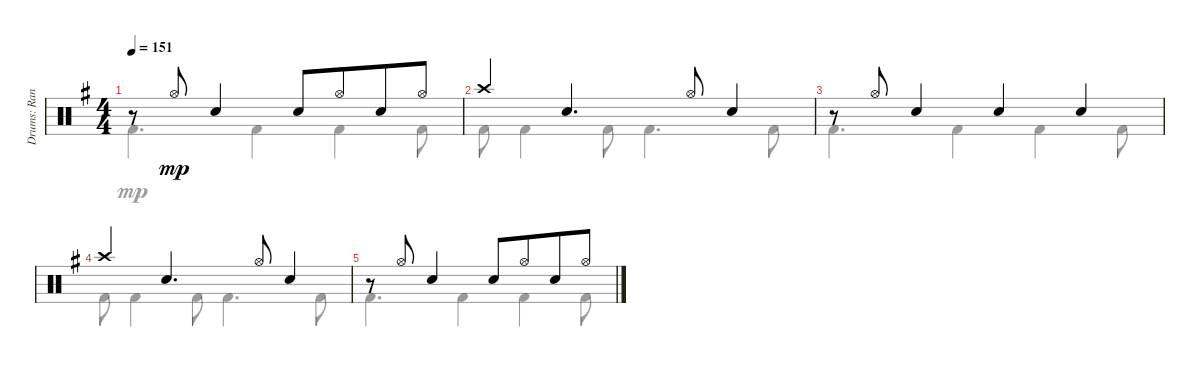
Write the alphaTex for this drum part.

\track ("Drums: Randy" "Drums: Ran") {instrument percussion}
\staff {score}
\articulation defaults
\voice
\ts (4 4)
\tempo 151
\clef neutral
\ks g
r.8{dy mp} "Hi-Hat (open)".8 "Snare (hit) 2".4 "Snare (hit) 2".8 "Hi-Hat (open)".8{beam merge} "Snare (hit) 2".8 "Hi-Hat (open)".8 |
"Crash high (hit)".4{volume 0} "Snare (hit) 2".4{d} "Hi-Hat (open)".8 "Snare (hit) 2".4 |
r.8 "Hi-Hat (open)".8 "Snare (hit) 2".4 "Snare (hit) 2".4 "Snare (hit) 2".4 |
"Crash high (hit)".4 "Snare (hit) 2".4{d} "Hi-Hat (open)".8 "Snare (hit) 2".4 |
r.8 "Hi-Hat (open)".8 "Snare (hit) 2".4 "Snare (hit) 2".8 "Hi-Hat (open)".8{beam merge} "Snare (hit) 2".8 "Hi-Hat (open)".8
\voice
\clef neutral
\ottava regular
\simile none
\ks g "Kick (hit) 2".4{d dy mp} "Kick (hit) 2".4 "Kick (hit) 2".4 "Kick (hit) 2".8
|
"Kick (hit) 2".8 "Kick (hit) 2".4 "Kick (hit) 2".8 "Kick (hit) 2".4{d} "Kick (hit) 2".8 |
"Kick (hit) 2".4{d} "Kick (hit) 2".4 "Kick (hit) 2".4 "Kick (hit) 2".8 |
"Kick (hit) 2".8 "Kick (hit) 2".4 "Kick (hit) 2".8 "Kick (hit) 2".4{d} "Kick (hit) 2".8 |
"Kick (hit) 2".4{d} "Kick (hit) 2".4 "Kick (hit) 2".4 "Kick (hit) 2".8
